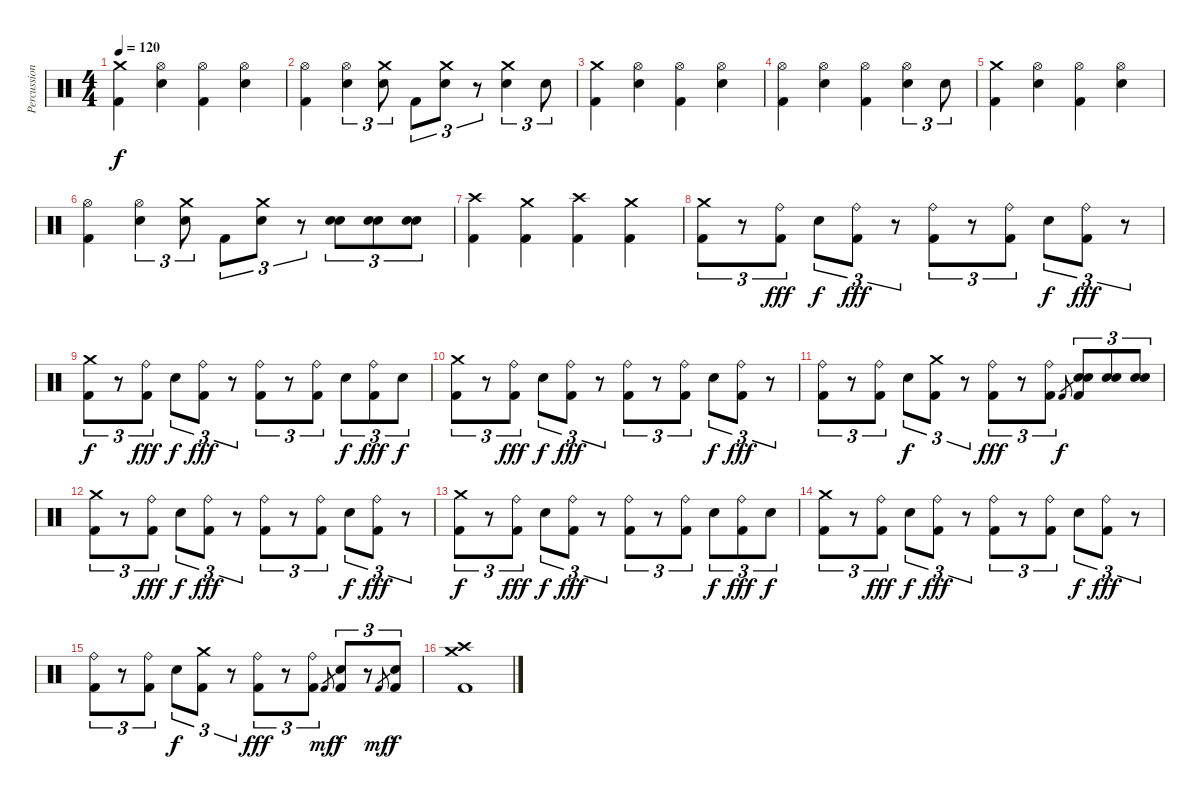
\track ("Percussions" "Percussion") {instrument percussion}
\staff {score}
\articulation defaults
\ts (4 4)
\tempo 120
\clef neutral
\ks c
("Kick (hit) 2" "Crash medium (hit)").4{dy f} ("Electric Snare (hit)" "Hi-Hat (open)").4 ("Kick (hit) 2" "Hi-Hat (open)").4 ("Electric Snare (hit)" "Hi-Hat (open)").4 |
("Kick (hit) 2" "Hi-Hat (open)").4 ("Electric Snare (hit)" "Hi-Hat (open)").4{tu (3 2)} ("Electric Snare (hit)" "Crash medium (hit)").8{tu (3 2)} "Kick (hit) 2".8{tu (3 2)} ("Electric Snare (hit)" "Crash medium (hit)").8{tu (3 2)} r.8{tu (3 2)} ("Electric Snare (hit)" "Crash medium (hit)").4{tu (3 2)} "Electric Snare (hit)".8{tu (3 2)} |
("Kick (hit) 2" "Crash medium (hit)").4 ("Electric Snare (hit)" "Hi-Hat (open)").4 ("Kick (hit) 2" "Hi-Hat (open)").4 ("Electric Snare (hit)" "Hi-Hat (open)").4 |
("Kick (hit) 2" "Hi-Hat (open)").4 ("Electric Snare (hit)" "Hi-Hat (open)").4 ("Kick (hit) 2" "Hi-Hat (open)").4 ("Electric Snare (hit)" "Hi-Hat (open)").4{tu (3 2)} "Electric Snare (hit)".8{tu (3 2)} |
("Kick (hit) 2" "Crash medium (hit)").4 ("Electric Snare (hit)" "Hi-Hat (open)").4 ("Kick (hit) 2" "Hi-Hat (open)").4 ("Electric Snare (hit)" "Hi-Hat (open)").4 |
("Kick (hit) 2" "Hi-Hat (open)").4 ("Electric Snare (hit)" "Hi-Hat (open)").4{tu (3 2)} ("Electric Snare (hit)" "Crash medium (hit)").8{tu (3 2)} "Kick (hit) 2".8{tu (3 2)} ("Electric Snare (hit)" "Crash medium (hit)").8{tu (3 2)} r.8{tu (3 2)} ("Electric Snare (hit)" "Snare (hit) 2").8{tu (3 2)} ("Electric Snare (hit)" "Snare (hit) 2").8{tu (3 2)} ("Electric Snare (hit)" "Snare (hit) 2").8{tu (3 2)} |
("Kick (hit) 2" "Crash high (hit)").4 ("Kick (hit) 2" "Crash medium (hit)").4 ("Kick (hit) 2" "Crash high (hit)").4 ("Kick (hit) 2" "Crash medium (hit)").4 |
("Kick (hit) 2" "Crash medium (hit)").8{tu (3 2)} r.8{tu (3 2)} ("Kick (hit) 2" "Ride (bell)").8{tu (3 2) dy fff} "Electric Snare (hit)".8{tu (3 2) dy f} ("Kick (hit) 2" "Ride (bell)").8{tu (3 2) dy fff} r.8{tu (3 2)} ("Kick (hit) 2" "Ride (bell)").8{tu (3 2)} r.8{tu (3 2)} ("Kick (hit) 2" "Ride (bell)").8{tu (3 2)} "Electric Snare (hit)".8{tu (3 2) dy f} ("Kick (hit) 2" "Ride (bell)").8{tu (3 2) dy fff} r.8{tu (3 2)} |
("Kick (hit) 2" "Crash medium (hit)").8{tu (3 2) dy f} r.8{tu (3 2)} ("Kick (hit) 2" "Ride (bell)").8{tu (3 2) dy fff} "Electric Snare (hit)".8{tu (3 2) dy f} ("Kick (hit) 2" "Ride (bell)").8{tu (3 2) dy fff} r.8{tu (3 2)} ("Kick (hit) 2" "Ride (bell)").8{tu (3 2)} r.8{tu (3 2)} ("Kick (hit) 2" "Ride (bell)").8{tu (3 2)} "Electric Snare (hit)".8{tu (3 2) dy f} ("Kick (hit) 2" "Ride (bell)").8{tu (3 2) dy fff} "Electric Snare (hit)".8{tu (3 2) dy f} |
("Kick (hit) 2" "Crash medium (hit)").8{tu (3 2)} r.8{tu (3 2)} ("Kick (hit) 2" "Ride (bell)").8{tu (3 2) dy fff} "Electric Snare (hit)".8{tu (3 2) dy f} ("Kick (hit) 2" "Ride (bell)").8{tu (3 2) dy fff} r.8{tu (3 2)} ("Kick (hit) 2" "Ride (bell)").8{tu (3 2)} r.8{tu (3 2)} ("Kick (hit) 2" "Ride (bell)").8{tu (3 2)} "Electric Snare (hit)".8{tu (3 2) dy f} ("Kick (hit) 2" "Ride (bell)").8{tu (3 2) dy fff} r.8{tu (3 2)} |
("Kick (hit) 2" "Ride (bell)").8{tu (3 2)} r.8{tu (3 2)} ("Kick (hit) 2" "Ride (bell)").8{tu (3 2)} "Electric Snare (hit)".8{tu (3 2) dy f} ("Kick (hit) 2" "Crash medium (hit)").8{tu (3 2)} r.8{tu (3 2)} ("Kick (hit) 2" "Ride (bell)").8{tu (3 2) dy fff} r.8{tu (3 2)} ("Kick (hit) 2" "Ride (bell)").8{tu (3 2)} "Kick (hit) 2".8{gr dy f} ("Kick (hit) 2" "Snare (hit) 2" "Electric Snare (hit)").8{tu (3 2)} ("Snare (hit) 2" "Electric Snare (hit)").8{tu (3 2)} ("Snare (hit) 2" "Electric Snare (hit)").8{tu (3 2)} |
("Kick (hit) 2" "Crash medium (hit)").8{tu (3 2)} r.8{tu (3 2)} ("Kick (hit) 2" "Ride (bell)").8{tu (3 2) dy fff} "Electric Snare (hit)".8{tu (3 2) dy f} ("Kick (hit) 2" "Ride (bell)").8{tu (3 2) dy fff} r.8{tu (3 2)} ("Kick (hit) 2" "Ride (bell)").8{tu (3 2)} r.8{tu (3 2)} ("Kick (hit) 2" "Ride (bell)").8{tu (3 2)} "Electric Snare (hit)".8{tu (3 2) dy f} ("Kick (hit) 2" "Ride (bell)").8{tu (3 2) dy fff} r.8{tu (3 2)} |
("Kick (hit) 2" "Crash medium (hit)").8{tu (3 2) dy f} r.8{tu (3 2)} ("Kick (hit) 2" "Ride (bell)").8{tu (3 2) dy fff} "Electric Snare (hit)".8{tu (3 2) dy f} ("Kick (hit) 2" "Ride (bell)").8{tu (3 2) dy fff} r.8{tu (3 2)} ("Kick (hit) 2" "Ride (bell)").8{tu (3 2)} r.8{tu (3 2)} ("Kick (hit) 2" "Ride (bell)").8{tu (3 2)} "Electric Snare (hit)".8{tu (3 2) dy f} ("Kick (hit) 2" "Ride (bell)").8{tu (3 2) dy fff} "Electric Snare (hit)".8{tu (3 2) dy f} |
("Kick (hit) 2" "Crash medium (hit)").8{tu (3 2)} r.8{tu (3 2)} ("Kick (hit) 2" "Ride (bell)").8{tu (3 2) dy fff} "Electric Snare (hit)".8{tu (3 2) dy f} ("Kick (hit) 2" "Ride (bell)").8{tu (3 2) dy fff} r.8{tu (3 2)} ("Kick (hit) 2" "Ride (bell)").8{tu (3 2)} r.8{tu (3 2)} ("Kick (hit) 2" "Ride (bell)").8{tu (3 2)} "Electric Snare (hit)".8{tu (3 2) dy f} ("Kick (hit) 2" "Ride (bell)").8{tu (3 2) dy fff} r.8{tu (3 2)} |
("Kick (hit) 2" "Ride (bell)").8{tu (3 2)} r.8{tu (3 2)} ("Kick (hit) 2" "Ride (bell)").8{tu (3 2)} "Electric Snare (hit)".8{tu (3 2) dy f} ("Kick (hit) 2" "Crash medium (hit)").8{tu (3 2)} r.8{tu (3 2)} ("Kick (hit) 2" "Ride (bell)").8{tu (3 2) dy fff} r.8{tu (3 2)} ("Kick (hit) 2" "Ride (bell)").8{tu (3 2)} "Kick (hit) 2".8{gr dy mf} ("Kick (hit) 2" "Electric Snare (hit)").8{tu (3 2) dy f} r.8{tu (3 2)} "Kick (hit) 2".8{gr dy mf} ("Kick (hit) 2" "Electric Snare (hit)").8{tu (3 2) dy f} |
("Kick (hit) 2" "Crash high (hit)" "Crash medium (hit)").1
